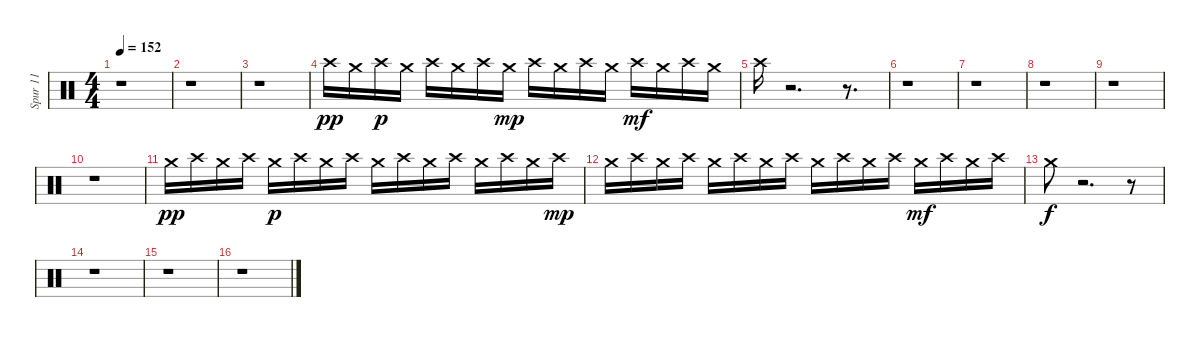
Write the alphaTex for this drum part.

\track ("Spur 11" "Spur 11") {instrument percussion}
\staff {score}
\articulation defaults
\ts (4 4)
\tempo 152
\clef neutral
\ks c
r.1{dy f} |
r.1 |
r.1 |
"Crash high (hit)".16{dy pp} "Crash medium (hit)".16 "Crash high (hit)".16{dy p} "Crash medium (hit)".16 "Crash high (hit)".16 "Crash medium (hit)".16 "Crash high (hit)".16 "Crash medium (hit)".16{dy mp} "Crash high (hit)".16 "Crash medium (hit)".16 "Crash high (hit)".16 "Crash medium (hit)".16 "Crash high (hit)".16{dy mf} "Crash medium (hit)".16 "Crash high (hit)".16 "Crash medium (hit)".16 |
"Crash high (hit)".16 r.2{d} r.8{d} |
r.1 |
r.1 |
r.1 |
r.1 |
r.1 |
"Crash medium (hit)".16{dy pp} "Crash high (hit)".16 "Crash medium (hit)".16 "Crash high (hit)".16 "Crash medium (hit)".16{dy p} "Crash high (hit)".16 "Crash medium (hit)".16 "Crash high (hit)".16 "Crash medium (hit)".16 "Crash high (hit)".16 "Crash medium (hit)".16 "Crash high (hit)".16 "Crash medium (hit)".16 "Crash high (hit)".16 "Crash medium (hit)".16 "Crash high (hit)".16{dy mp} |
"Crash medium (hit)".16 "Crash high (hit)".16 "Crash medium (hit)".16 "Crash high (hit)".16 "Crash medium (hit)".16 "Crash high (hit)".16 "Crash medium (hit)".16 "Crash high (hit)".16 "Crash medium (hit)".16 "Crash high (hit)".16 "Crash medium (hit)".16 "Crash high (hit)".16 "Crash medium (hit)".16{dy mf} "Crash high (hit)".16 "Crash medium (hit)".16 "Crash high (hit)".16 |
"Crash medium (hit)".8{dy f} r.2{d} r.8 |
r.1 |
r.1 |
r.1
